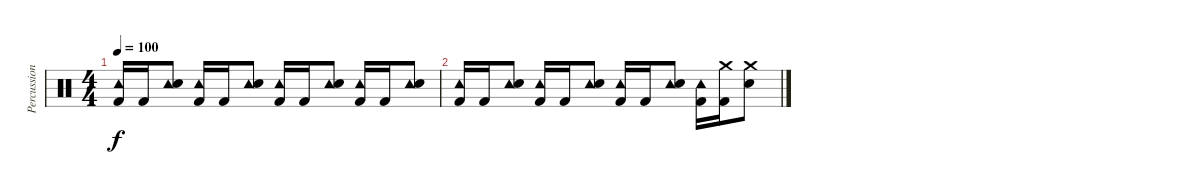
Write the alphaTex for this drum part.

\track ("Percussion" "Percussion") {instrument percussion}
\staff {score}
\articulation defaults
\ts (4 4)
\tempo 100
\clef neutral
\ks c
("Tambourine (hit)" "Kick (hit) 2").16{dy f} "Kick (hit) 2".16 ("Tambourine (hit)" "Snare (hit) 2").8 ("Tambourine (hit)" "Kick (hit) 2").16 "Kick (hit) 2".16 ("Tambourine (hit)" "Snare (hit) 2").8 ("Tambourine (hit)" "Kick (hit) 2").16 "Kick (hit) 2".16 ("Tambourine (hit)" "Snare (hit) 2").8 ("Tambourine (hit)" "Kick (hit) 2").16 "Kick (hit) 2".16 ("Tambourine (hit)" "Snare (hit) 2").8 |
("Tambourine (hit)" "Kick (hit) 2").16 "Kick (hit) 2".16 ("Tambourine (hit)" "Snare (hit) 2").8 ("Tambourine (hit)" "Kick (hit) 2").16 "Kick (hit) 2".16 ("Tambourine (hit)" "Snare (hit) 2").8 ("Tambourine (hit)" "Kick (hit) 2").16 "Kick (hit) 2".16 ("Tambourine (hit)" "Snare (hit) 2").8 ("Tambourine (hit)" "Kick (hit) 2").16 ("Crash medium (hit)" "Kick (hit) 2").16 ("Crash medium (hit)" "Snare (hit) 2").8
